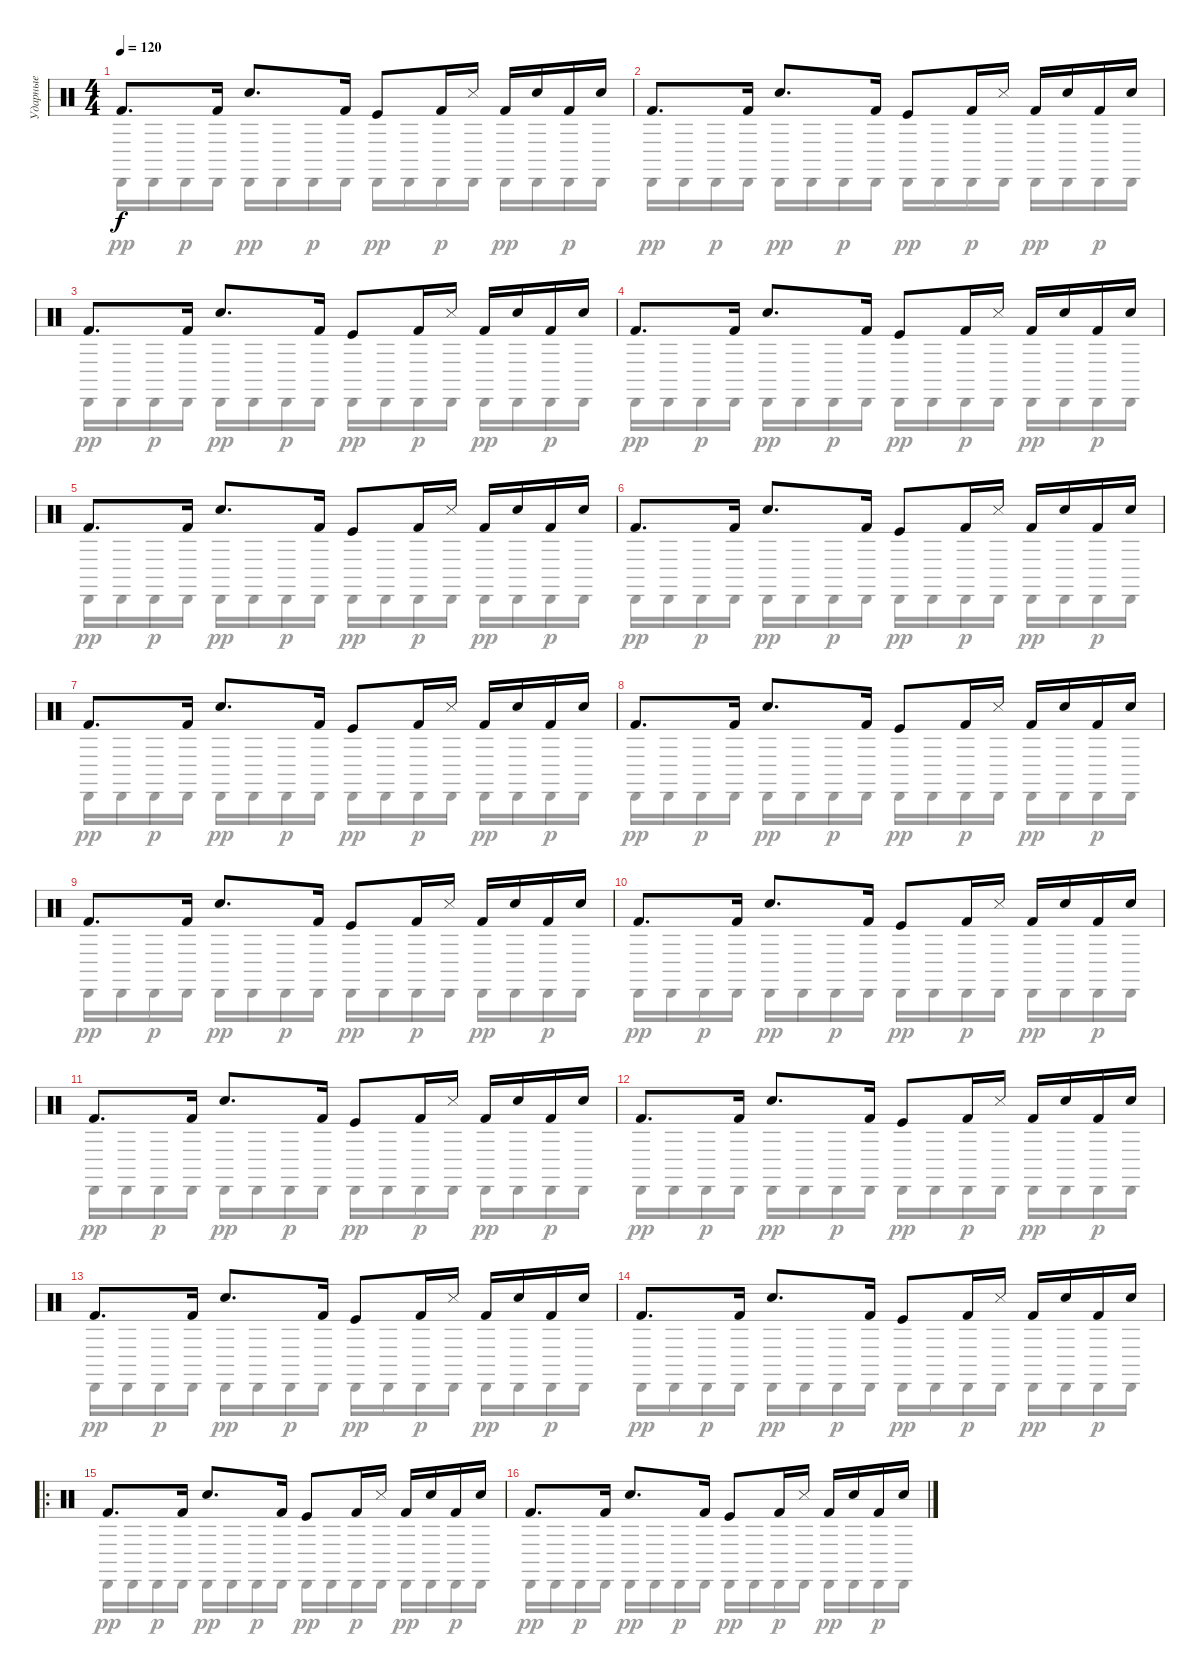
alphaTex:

\track ("Ударные" "Ударные") {instrument percussion}
\staff {score}
\articulation defaults
\voice
\ts (4 4)
\tempo 120
\clef neutral
\ks c "Kick (hit) 2".8{d dy f} "Kick (hit) 2".16 "Electric Snare (hit)".8{d} "Kick (hit) 2".16 "Kick (hit)".8 "Kick (hit) 2".16 "Metronome (hit)".16 "Kick (hit) 2".16 "Electric Snare (hit)".16 "Kick (hit) 2".16 "Electric Snare (hit)".16
|
"Kick (hit) 2".8{d} "Kick (hit) 2".16 "Electric Snare (hit)".8{d} "Kick (hit) 2".16 "Kick (hit)".8 "Kick (hit) 2".16 "Metronome (hit)".16 "Kick (hit) 2".16 "Electric Snare (hit)".16 "Kick (hit) 2".16 "Electric Snare (hit)".16 |
"Kick (hit) 2".8{d} "Kick (hit) 2".16 "Electric Snare (hit)".8{d} "Kick (hit) 2".16 "Kick (hit)".8 "Kick (hit) 2".16 "Metronome (hit)".16 "Kick (hit) 2".16 "Electric Snare (hit)".16 "Kick (hit) 2".16 "Electric Snare (hit)".16 |
"Kick (hit) 2".8{d} "Kick (hit) 2".16 "Electric Snare (hit)".8{d} "Kick (hit) 2".16 "Kick (hit)".8 "Kick (hit) 2".16 "Metronome (hit)".16 "Kick (hit) 2".16 "Electric Snare (hit)".16 "Kick (hit) 2".16 "Electric Snare (hit)".16 |
"Kick (hit) 2".8{d} "Kick (hit) 2".16 "Electric Snare (hit)".8{d} "Kick (hit) 2".16 "Kick (hit)".8 "Kick (hit) 2".16 "Metronome (hit)".16 "Kick (hit) 2".16 "Electric Snare (hit)".16 "Kick (hit) 2".16 "Electric Snare (hit)".16 |
"Kick (hit) 2".8{d} "Kick (hit) 2".16 "Electric Snare (hit)".8{d} "Kick (hit) 2".16 "Kick (hit)".8 "Kick (hit) 2".16 "Metronome (hit)".16 "Kick (hit) 2".16 "Electric Snare (hit)".16 "Kick (hit) 2".16 "Electric Snare (hit)".16 |
"Kick (hit) 2".8{d} "Kick (hit) 2".16 "Electric Snare (hit)".8{d} "Kick (hit) 2".16 "Kick (hit)".8 "Kick (hit) 2".16 "Metronome (hit)".16 "Kick (hit) 2".16 "Electric Snare (hit)".16 "Kick (hit) 2".16 "Electric Snare (hit)".16 |
"Kick (hit) 2".8{d} "Kick (hit) 2".16 "Electric Snare (hit)".8{d} "Kick (hit) 2".16 "Kick (hit)".8 "Kick (hit) 2".16 "Metronome (hit)".16 "Kick (hit) 2".16 "Electric Snare (hit)".16 "Kick (hit) 2".16 "Electric Snare (hit)".16 |
"Kick (hit) 2".8{d} "Kick (hit) 2".16 "Electric Snare (hit)".8{d} "Kick (hit) 2".16 "Kick (hit)".8 "Kick (hit) 2".16 "Metronome (hit)".16 "Kick (hit) 2".16 "Electric Snare (hit)".16 "Kick (hit) 2".16 "Electric Snare (hit)".16 |
"Kick (hit) 2".8{d} "Kick (hit) 2".16 "Electric Snare (hit)".8{d} "Kick (hit) 2".16 "Kick (hit)".8 "Kick (hit) 2".16 "Metronome (hit)".16 "Kick (hit) 2".16 "Electric Snare (hit)".16 "Kick (hit) 2".16 "Electric Snare (hit)".16 |
"Kick (hit) 2".8{d} "Kick (hit) 2".16 "Electric Snare (hit)".8{d} "Kick (hit) 2".16 "Kick (hit)".8 "Kick (hit) 2".16 "Metronome (hit)".16 "Kick (hit) 2".16 "Electric Snare (hit)".16 "Kick (hit) 2".16 "Electric Snare (hit)".16 |
"Kick (hit) 2".8{d} "Kick (hit) 2".16 "Electric Snare (hit)".8{d} "Kick (hit) 2".16 "Kick (hit)".8 "Kick (hit) 2".16 "Metronome (hit)".16 "Kick (hit) 2".16 "Electric Snare (hit)".16 "Kick (hit) 2".16 "Electric Snare (hit)".16 |
"Kick (hit) 2".8{d} "Kick (hit) 2".16 "Electric Snare (hit)".8{d} "Kick (hit) 2".16 "Kick (hit)".8 "Kick (hit) 2".16 "Metronome (hit)".16 "Kick (hit) 2".16 "Electric Snare (hit)".16 "Kick (hit) 2".16 "Electric Snare (hit)".16 |
"Kick (hit) 2".8{d} "Kick (hit) 2".16 "Electric Snare (hit)".8{d} "Kick (hit) 2".16 "Kick (hit)".8 "Kick (hit) 2".16 "Metronome (hit)".16 "Kick (hit) 2".16 "Electric Snare (hit)".16 "Kick (hit) 2".16 "Electric Snare (hit)".16 |
\ro "Kick (hit) 2".8{d} "Kick (hit) 2".16 "Electric Snare (hit)".8{d} "Kick (hit) 2".16 "Kick (hit)".8 "Kick (hit) 2".16 "Metronome (hit)".16 "Kick (hit) 2".16 "Electric Snare (hit)".16 "Kick (hit) 2".16 "Electric Snare (hit)".16
|
"Kick (hit) 2".8{d} "Kick (hit) 2".16 "Electric Snare (hit)".8{d} "Kick (hit) 2".16 "Kick (hit)".8 "Kick (hit) 2".16 "Metronome (hit)".16 "Kick (hit) 2".16 "Electric Snare (hit)".16 "Kick (hit) 2".16 "Electric Snare (hit)".16
\voice
\clef neutral
\ottava regular
\simile none
\ks c "Cabasa (hit)".16{dy pp} "Cabasa (hit)".16 "Cabasa (hit)".16{dy p} "Cabasa (hit)".16 "Cabasa (hit)".16{dy pp} "Cabasa (hit)".16 "Cabasa (hit)".16{dy p} "Cabasa (hit)".16 "Cabasa (hit)".16{dy pp} "Cabasa (hit)".16 "Cabasa (hit)".16{dy p} "Cabasa (hit)".16 "Cabasa (hit)".16{dy pp} "Cabasa (hit)".16 "Cabasa (hit)".16{dy p} "Cabasa (hit)".16
|
"Cabasa (hit)".16{dy pp} "Cabasa (hit)".16 "Cabasa (hit)".16{dy p} "Cabasa (hit)".16 "Cabasa (hit)".16{dy pp} "Cabasa (hit)".16 "Cabasa (hit)".16{dy p} "Cabasa (hit)".16 "Cabasa (hit)".16{dy pp} "Cabasa (hit)".16 "Cabasa (hit)".16{dy p} "Cabasa (hit)".16 "Cabasa (hit)".16{dy pp} "Cabasa (hit)".16 "Cabasa (hit)".16{dy p} "Cabasa (hit)".16 |
"Cabasa (hit)".16{dy pp} "Cabasa (hit)".16 "Cabasa (hit)".16{dy p} "Cabasa (hit)".16 "Cabasa (hit)".16{dy pp} "Cabasa (hit)".16 "Cabasa (hit)".16{dy p} "Cabasa (hit)".16 "Cabasa (hit)".16{dy pp} "Cabasa (hit)".16 "Cabasa (hit)".16{dy p} "Cabasa (hit)".16 "Cabasa (hit)".16{dy pp} "Cabasa (hit)".16 "Cabasa (hit)".16{dy p} "Cabasa (hit)".16 |
"Cabasa (hit)".16{dy pp} "Cabasa (hit)".16 "Cabasa (hit)".16{dy p} "Cabasa (hit)".16 "Cabasa (hit)".16{dy pp} "Cabasa (hit)".16 "Cabasa (hit)".16{dy p} "Cabasa (hit)".16 "Cabasa (hit)".16{dy pp} "Cabasa (hit)".16 "Cabasa (hit)".16{dy p} "Cabasa (hit)".16 "Cabasa (hit)".16{dy pp} "Cabasa (hit)".16 "Cabasa (hit)".16{dy p} "Cabasa (hit)".16 |
"Cabasa (hit)".16{dy pp} "Cabasa (hit)".16 "Cabasa (hit)".16{dy p} "Cabasa (hit)".16 "Cabasa (hit)".16{dy pp} "Cabasa (hit)".16 "Cabasa (hit)".16{dy p} "Cabasa (hit)".16 "Cabasa (hit)".16{dy pp} "Cabasa (hit)".16 "Cabasa (hit)".16{dy p} "Cabasa (hit)".16 "Cabasa (hit)".16{dy pp} "Cabasa (hit)".16 "Cabasa (hit)".16{dy p} "Cabasa (hit)".16 |
"Cabasa (hit)".16{dy pp} "Cabasa (hit)".16 "Cabasa (hit)".16{dy p} "Cabasa (hit)".16 "Cabasa (hit)".16{dy pp} "Cabasa (hit)".16 "Cabasa (hit)".16{dy p} "Cabasa (hit)".16 "Cabasa (hit)".16{dy pp} "Cabasa (hit)".16 "Cabasa (hit)".16{dy p} "Cabasa (hit)".16 "Cabasa (hit)".16{dy pp} "Cabasa (hit)".16 "Cabasa (hit)".16{dy p} "Cabasa (hit)".16 |
"Cabasa (hit)".16{dy pp} "Cabasa (hit)".16 "Cabasa (hit)".16{dy p} "Cabasa (hit)".16 "Cabasa (hit)".16{dy pp} "Cabasa (hit)".16 "Cabasa (hit)".16{dy p} "Cabasa (hit)".16 "Cabasa (hit)".16{dy pp} "Cabasa (hit)".16 "Cabasa (hit)".16{dy p} "Cabasa (hit)".16 "Cabasa (hit)".16{dy pp} "Cabasa (hit)".16 "Cabasa (hit)".16{dy p} "Cabasa (hit)".16 |
"Cabasa (hit)".16{dy pp} "Cabasa (hit)".16 "Cabasa (hit)".16{dy p} "Cabasa (hit)".16 "Cabasa (hit)".16{dy pp} "Cabasa (hit)".16 "Cabasa (hit)".16{dy p} "Cabasa (hit)".16 "Cabasa (hit)".16{dy pp} "Cabasa (hit)".16 "Cabasa (hit)".16{dy p} "Cabasa (hit)".16 "Cabasa (hit)".16{dy pp} "Cabasa (hit)".16 "Cabasa (hit)".16{dy p} "Cabasa (hit)".16 |
"Cabasa (hit)".16{dy pp} "Cabasa (hit)".16 "Cabasa (hit)".16{dy p} "Cabasa (hit)".16 "Cabasa (hit)".16{dy pp} "Cabasa (hit)".16 "Cabasa (hit)".16{dy p} "Cabasa (hit)".16 "Cabasa (hit)".16{dy pp} "Cabasa (hit)".16 "Cabasa (hit)".16{dy p} "Cabasa (hit)".16 "Cabasa (hit)".16{dy pp} "Cabasa (hit)".16 "Cabasa (hit)".16{dy p} "Cabasa (hit)".16 |
"Cabasa (hit)".16{dy pp} "Cabasa (hit)".16 "Cabasa (hit)".16{dy p} "Cabasa (hit)".16 "Cabasa (hit)".16{dy pp} "Cabasa (hit)".16 "Cabasa (hit)".16{dy p} "Cabasa (hit)".16 "Cabasa (hit)".16{dy pp} "Cabasa (hit)".16 "Cabasa (hit)".16{dy p} "Cabasa (hit)".16 "Cabasa (hit)".16{dy pp} "Cabasa (hit)".16 "Cabasa (hit)".16{dy p} "Cabasa (hit)".16 |
"Cabasa (hit)".16{dy pp} "Cabasa (hit)".16 "Cabasa (hit)".16{dy p} "Cabasa (hit)".16 "Cabasa (hit)".16{dy pp} "Cabasa (hit)".16 "Cabasa (hit)".16{dy p} "Cabasa (hit)".16 "Cabasa (hit)".16{dy pp} "Cabasa (hit)".16 "Cabasa (hit)".16{dy p} "Cabasa (hit)".16 "Cabasa (hit)".16{dy pp} "Cabasa (hit)".16 "Cabasa (hit)".16{dy p} "Cabasa (hit)".16 |
"Cabasa (hit)".16{dy pp} "Cabasa (hit)".16 "Cabasa (hit)".16{dy p} "Cabasa (hit)".16 "Cabasa (hit)".16{dy pp} "Cabasa (hit)".16 "Cabasa (hit)".16{dy p} "Cabasa (hit)".16 "Cabasa (hit)".16{dy pp} "Cabasa (hit)".16 "Cabasa (hit)".16{dy p} "Cabasa (hit)".16 "Cabasa (hit)".16{dy pp} "Cabasa (hit)".16 "Cabasa (hit)".16{dy p} "Cabasa (hit)".16 |
"Cabasa (hit)".16{dy pp} "Cabasa (hit)".16 "Cabasa (hit)".16{dy p} "Cabasa (hit)".16 "Cabasa (hit)".16{dy pp} "Cabasa (hit)".16 "Cabasa (hit)".16{dy p} "Cabasa (hit)".16 "Cabasa (hit)".16{dy pp} "Cabasa (hit)".16 "Cabasa (hit)".16{dy p} "Cabasa (hit)".16 "Cabasa (hit)".16{dy pp} "Cabasa (hit)".16 "Cabasa (hit)".16{dy p} "Cabasa (hit)".16 |
"Cabasa (hit)".16{dy pp} "Cabasa (hit)".16 "Cabasa (hit)".16{dy p} "Cabasa (hit)".16 "Cabasa (hit)".16{dy pp} "Cabasa (hit)".16 "Cabasa (hit)".16{dy p} "Cabasa (hit)".16 "Cabasa (hit)".16{dy pp} "Cabasa (hit)".16 "Cabasa (hit)".16{dy p} "Cabasa (hit)".16 "Cabasa (hit)".16{dy pp} "Cabasa (hit)".16 "Cabasa (hit)".16{dy p} "Cabasa (hit)".16 |
"Cabasa (hit)".16{dy pp} "Cabasa (hit)".16 "Cabasa (hit)".16{dy p} "Cabasa (hit)".16 "Cabasa (hit)".16{dy pp} "Cabasa (hit)".16 "Cabasa (hit)".16{dy p} "Cabasa (hit)".16 "Cabasa (hit)".16{dy pp} "Cabasa (hit)".16 "Cabasa (hit)".16{dy p} "Cabasa (hit)".16 "Cabasa (hit)".16{dy pp} "Cabasa (hit)".16 "Cabasa (hit)".16{dy p} "Cabasa (hit)".16 |
"Cabasa (hit)".16{dy pp} "Cabasa (hit)".16 "Cabasa (hit)".16{dy p} "Cabasa (hit)".16 "Cabasa (hit)".16{dy pp} "Cabasa (hit)".16 "Cabasa (hit)".16{dy p} "Cabasa (hit)".16 "Cabasa (hit)".16{dy pp} "Cabasa (hit)".16 "Cabasa (hit)".16{dy p} "Cabasa (hit)".16 "Cabasa (hit)".16{dy pp} "Cabasa (hit)".16 "Cabasa (hit)".16{dy p} "Cabasa (hit)".16
